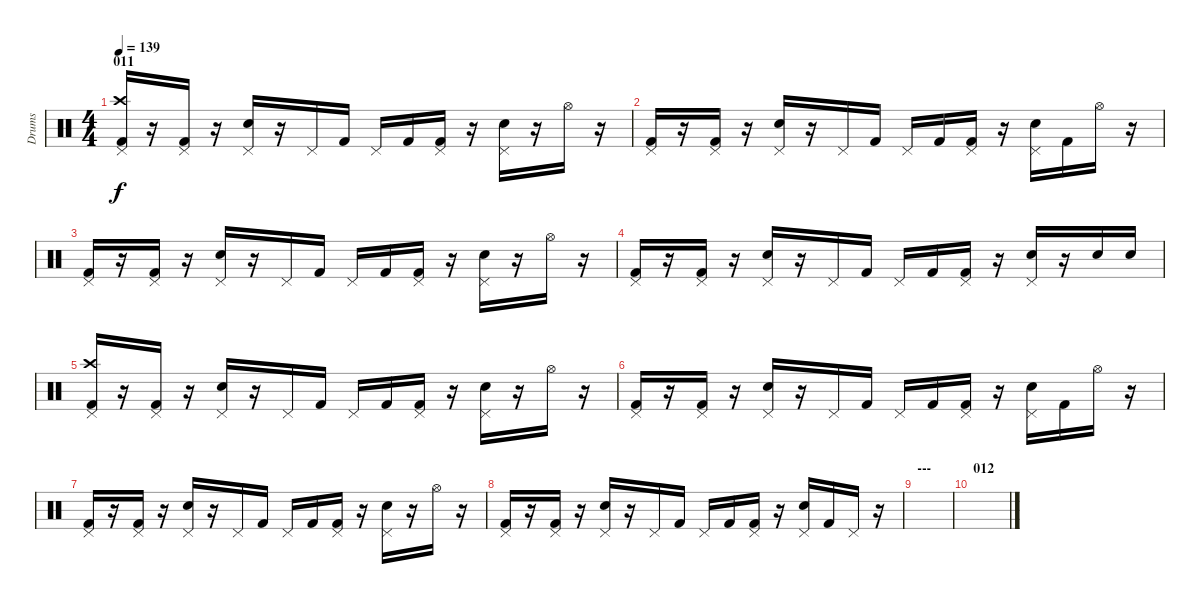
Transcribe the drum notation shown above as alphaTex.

\track ("Drums" "Drums") {instrument percussion}
\staff {score}
\articulation defaults
\ts (4 4)
\section ("" "011")
\tempo 139
\clef neutral
\ks c
("Kick (hit) 2" "Crash high (hit)" "Pedal Hi-Hat (hit)").16{dy f} r.16 ("Kick (hit) 2" "Pedal Hi-Hat (hit)").16 r.16 ("Electric Snare (hit)" "Pedal Hi-Hat (hit)").16 r.16 "Pedal Hi-Hat (hit)".16 "Kick (hit) 2".16 "Pedal Hi-Hat (hit)".16 "Kick (hit) 2".16 ("Kick (hit) 2" "Pedal Hi-Hat (hit)").16 r.16 ("Electric Snare (hit)" "Pedal Hi-Hat (hit)").16 r.16 "Hi-Hat (open)".16 r.16 |
("Kick (hit) 2" "Pedal Hi-Hat (hit)").16 r.16 ("Kick (hit) 2" "Pedal Hi-Hat (hit)").16 r.16 ("Electric Snare (hit)" "Pedal Hi-Hat (hit)").16 r.16 "Pedal Hi-Hat (hit)".16 "Kick (hit) 2".16 "Pedal Hi-Hat (hit)".16 "Kick (hit) 2".16 ("Kick (hit) 2" "Pedal Hi-Hat (hit)").16 r.16 ("Electric Snare (hit)" "Pedal Hi-Hat (hit)").16 "Kick (hit) 2".16 "Hi-Hat (open)".16 r.16 |
("Kick (hit) 2" "Pedal Hi-Hat (hit)").16 r.16 ("Kick (hit) 2" "Pedal Hi-Hat (hit)").16 r.16 ("Electric Snare (hit)" "Pedal Hi-Hat (hit)").16 r.16 "Pedal Hi-Hat (hit)".16 "Kick (hit) 2".16 "Pedal Hi-Hat (hit)".16 "Kick (hit) 2".16 ("Kick (hit) 2" "Pedal Hi-Hat (hit)").16 r.16 ("Electric Snare (hit)" "Pedal Hi-Hat (hit)").16 r.16 "Hi-Hat (open)".16 r.16 |
("Kick (hit) 2" "Pedal Hi-Hat (hit)").16 r.16 ("Kick (hit) 2" "Pedal Hi-Hat (hit)").16 r.16 ("Electric Snare (hit)" "Pedal Hi-Hat (hit)").16 r.16 "Pedal Hi-Hat (hit)".16 "Kick (hit) 2".16 "Pedal Hi-Hat (hit)".16 "Kick (hit) 2".16 ("Kick (hit) 2" "Pedal Hi-Hat (hit)").16 r.16 ("Electric Snare (hit)" "Pedal Hi-Hat (hit)").16 r.16 "Electric Snare (hit)".16 "Electric Snare (hit)".16 |
("Kick (hit) 2" "Crash high (hit)" "Pedal Hi-Hat (hit)").16 r.16 ("Kick (hit) 2" "Pedal Hi-Hat (hit)").16 r.16 ("Electric Snare (hit)" "Pedal Hi-Hat (hit)").16 r.16 "Pedal Hi-Hat (hit)".16 "Kick (hit) 2".16 "Pedal Hi-Hat (hit)".16 "Kick (hit) 2".16 ("Kick (hit) 2" "Pedal Hi-Hat (hit)").16 r.16 ("Electric Snare (hit)" "Pedal Hi-Hat (hit)").16 r.16 "Hi-Hat (open)".16 r.16 |
("Kick (hit) 2" "Pedal Hi-Hat (hit)").16 r.16 ("Kick (hit) 2" "Pedal Hi-Hat (hit)").16 r.16 ("Electric Snare (hit)" "Pedal Hi-Hat (hit)").16 r.16 "Pedal Hi-Hat (hit)".16 "Kick (hit) 2".16 "Pedal Hi-Hat (hit)".16 "Kick (hit) 2".16 ("Kick (hit) 2" "Pedal Hi-Hat (hit)").16 r.16 ("Electric Snare (hit)" "Pedal Hi-Hat (hit)").16 "Kick (hit) 2".16 "Hi-Hat (open)".16 r.16 |
("Kick (hit) 2" "Pedal Hi-Hat (hit)").16 r.16 ("Kick (hit) 2" "Pedal Hi-Hat (hit)").16 r.16 ("Electric Snare (hit)" "Pedal Hi-Hat (hit)").16 r.16 "Pedal Hi-Hat (hit)".16 "Kick (hit) 2".16 "Pedal Hi-Hat (hit)".16 "Kick (hit) 2".16 ("Kick (hit) 2" "Pedal Hi-Hat (hit)").16 r.16 ("Electric Snare (hit)" "Pedal Hi-Hat (hit)").16 r.16 "Hi-Hat (open)".16 r.16 |
("Kick (hit) 2" "Pedal Hi-Hat (hit)").16 r.16 ("Kick (hit) 2" "Pedal Hi-Hat (hit)").16 r.16 ("Electric Snare (hit)" "Pedal Hi-Hat (hit)").16 r.16 "Pedal Hi-Hat (hit)".16 "Kick (hit) 2".16 "Pedal Hi-Hat (hit)".16 "Kick (hit) 2".16 ("Kick (hit) 2" "Pedal Hi-Hat (hit)").16 r.16 ("Electric Snare (hit)" "Pedal Hi-Hat (hit)").16 "Kick (hit) 2".16 "Pedal Hi-Hat (hit)".16 r.16 |
\section ("" "---")
|
\section ("" "012")
